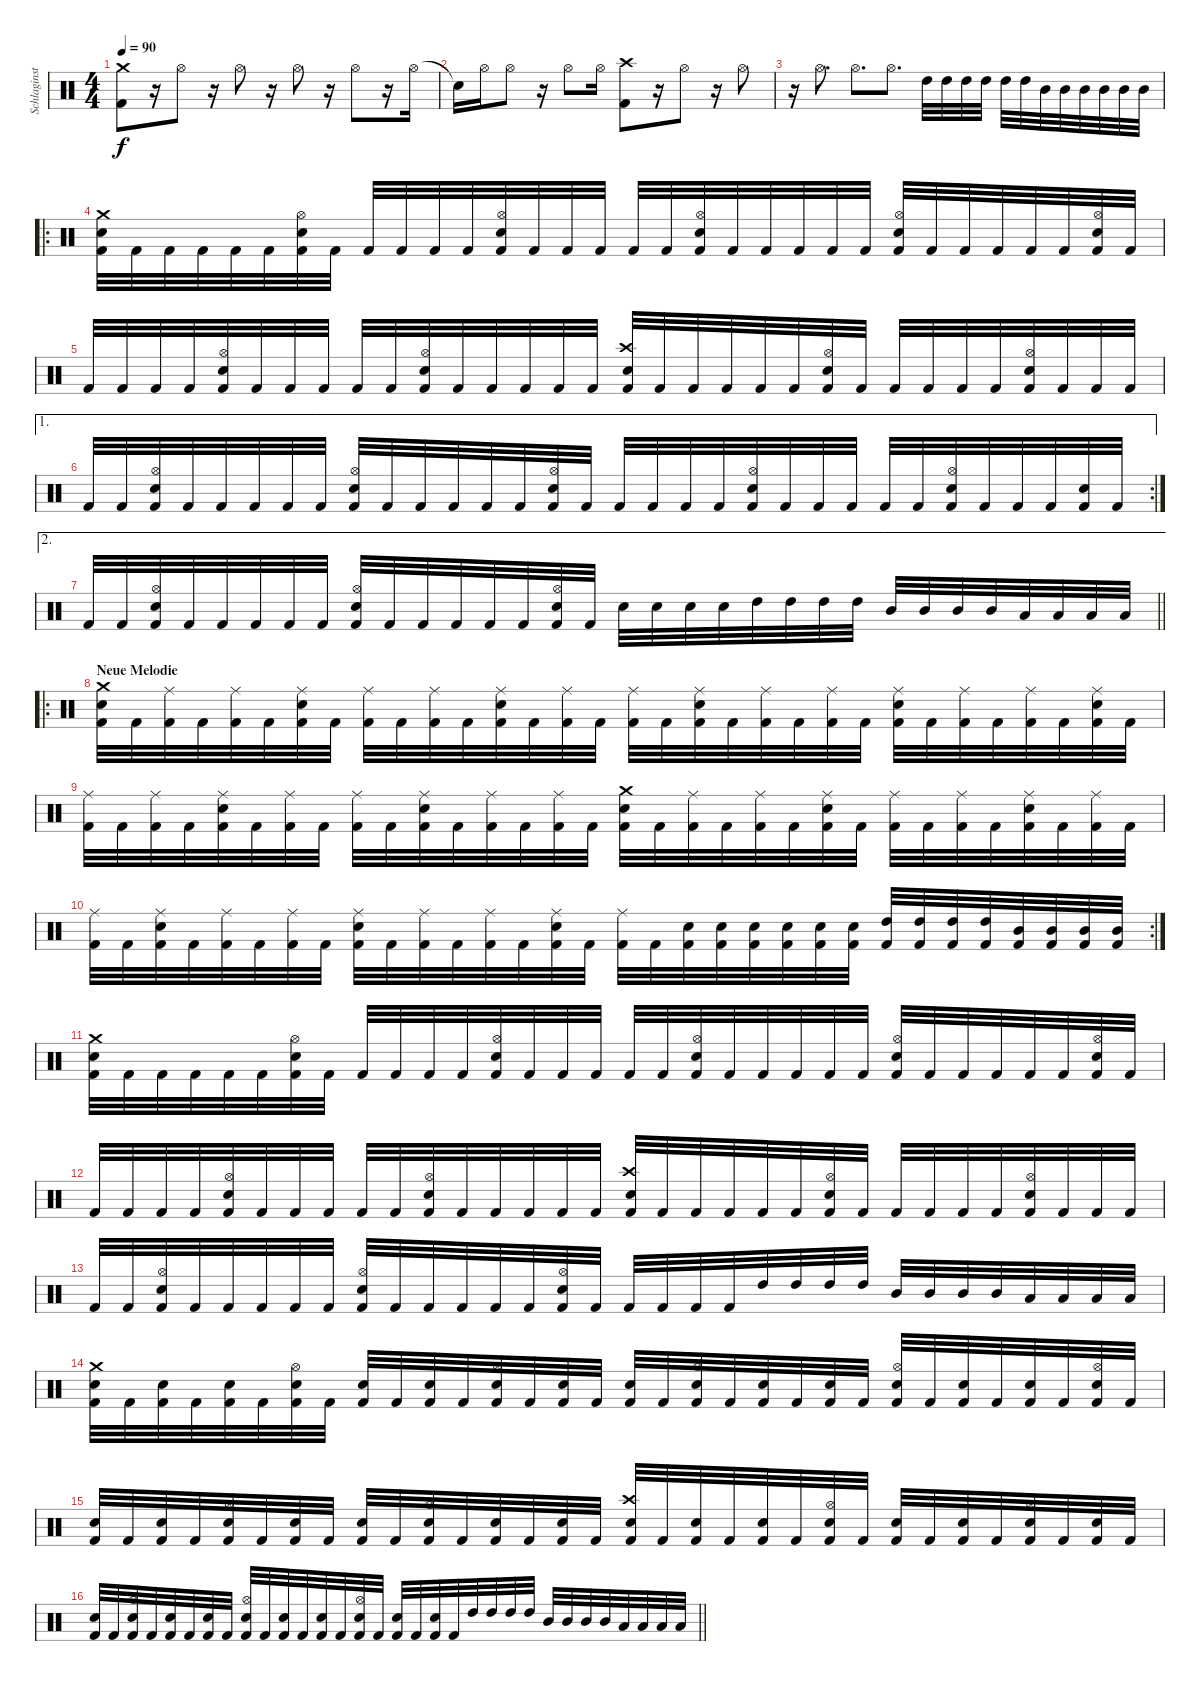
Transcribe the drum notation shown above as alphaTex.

\track ("Schlaginstrumente - Auswahl" "Schlaginst") {instrument percussion}
\staff {score}
\articulation defaults
\ts (4 4)
\tempo 90
\clef neutral
\ks c
("Crash medium (hit)" "Kick (hit) 2").8{dy f} r.16 "Hi-Hat (open)".8 r.16 "Hi-Hat (open)".8 r.16 "Hi-Hat (open)".8 r.16 "Hi-Hat (open)".8 r.16 "Hi-Hat (open)".16 |
"Snare (hit)"{t}.16 "Hi-Hat (open)".16 "Hi-Hat (open)".8 r.16 "Hi-Hat (open)".8 "Hi-Hat (open)".16 ("Crash high (hit)" "Kick (hit) 2").8 r.16 "Hi-Hat (open)".8 r.16 "Hi-Hat (open)".8 |
r.16 "Hi-Hat (open)".8{d} "Hi-Hat (open)".8{d} "Hi-Hat (open)".8{d} "High Tom (hit)".32 "High Tom (hit)".32 "High Tom (hit)".32 "High Tom (hit)".32 "High Tom (hit)".32 "High Tom (hit)".32 "Mid Tom (hit)".32 "Mid Tom (hit)".32 "Mid Tom (hit)".32 "Mid Tom (hit)".32 "Mid Tom (hit)".32 "Mid Tom (hit)".32 |
\ro
("Crash medium (hit)" "Electric Snare (hit)" "Kick (hit) 2").32 "Kick (hit) 2".32 "Kick (hit) 2".32 "Kick (hit) 2".32 "Kick (hit) 2".32 "Kick (hit) 2".32 ("Hi-Hat (open)" "Electric Snare (hit)" "Kick (hit) 2").32 "Kick (hit) 2".32 "Kick (hit) 2".32 "Kick (hit) 2".32 "Kick (hit) 2".32 "Kick (hit) 2".32 ("Hi-Hat (open)" "Electric Snare (hit)" "Kick (hit) 2").32 "Kick (hit) 2".32 "Kick (hit) 2".32 "Kick (hit) 2".32 "Kick (hit) 2".32 "Kick (hit) 2".32 ("Hi-Hat (open)" "Electric Snare (hit)" "Kick (hit) 2").32 "Kick (hit) 2".32 "Kick (hit) 2".32 "Kick (hit) 2".32 "Kick (hit) 2".32 "Kick (hit) 2".32 ("Hi-Hat (open)" "Electric Snare (hit)" "Kick (hit) 2").32 "Kick (hit) 2".32 "Kick (hit) 2".32 "Kick (hit) 2".32 "Kick (hit) 2".32 "Kick (hit) 2".32 ("Hi-Hat (open)" "Electric Snare (hit)" "Kick (hit) 2").32 "Kick (hit) 2".32 |
"Kick (hit) 2".32 "Kick (hit) 2".32 "Kick (hit) 2".32 "Kick (hit) 2".32 ("Hi-Hat (open)" "Electric Snare (hit)" "Kick (hit) 2").32 "Kick (hit) 2".32 "Kick (hit) 2".32 "Kick (hit) 2".32 "Kick (hit) 2".32 "Kick (hit) 2".32 ("Hi-Hat (open)" "Electric Snare (hit)" "Kick (hit) 2").32 "Kick (hit) 2".32 "Kick (hit) 2".32 "Kick (hit) 2".32 "Kick (hit) 2".32 "Kick (hit) 2".32 ("Crash high (hit)" "Electric Snare (hit)" "Kick (hit) 2").32 "Kick (hit) 2".32 "Kick (hit) 2".32 "Kick (hit) 2".32 "Kick (hit) 2".32 "Kick (hit) 2".32 ("Hi-Hat (open)" "Electric Snare (hit)" "Kick (hit) 2").32 "Kick (hit) 2".32 "Kick (hit) 2".32 "Kick (hit) 2".32 "Kick (hit) 2".32 "Kick (hit) 2".32 ("Hi-Hat (open)" "Electric Snare (hit)" "Kick (hit) 2").32 "Kick (hit) 2".32 "Kick (hit) 2".32 "Kick (hit) 2".32 |
\ae 1
\rc 2 "Kick (hit) 2".32 "Kick (hit) 2".32
("Hi-Hat (open)" "Electric Snare (hit)" "Kick (hit) 2").32 "Kick (hit) 2".32 "Kick (hit) 2".32 "Kick (hit) 2".32 "Kick (hit) 2".32 "Kick (hit) 2".32 ("Hi-Hat (open)" "Electric Snare (hit)" "Kick (hit) 2").32 "Kick (hit) 2".32 "Kick (hit) 2".32 "Kick (hit) 2".32 "Kick (hit) 2".32 "Kick (hit) 2".32 ("Hi-Hat (open)" "Electric Snare (hit)" "Kick (hit) 2").32 "Kick (hit) 2".32 "Kick (hit) 2".32 "Kick (hit) 2".32 "Kick (hit) 2".32 "Kick (hit) 2".32 ("Hi-Hat (open)" "Electric Snare (hit)" "Kick (hit) 2").32 "Kick (hit) 2".32 "Kick (hit) 2".32 "Kick (hit) 2".32 "Kick (hit) 2".32 "Kick (hit) 2".32 ("Hi-Hat (open)" "Electric Snare (hit)" "Kick (hit) 2").32 "Kick (hit) 2".32 "Kick (hit) 2".32 "Kick (hit) 2".32 ("Electric Snare (hit)" "Kick (hit) 2").32 "Kick (hit) 2".32 |
\ae 2
\barLineRight lightlight "Kick (hit) 2".32 "Kick (hit) 2".32
("Hi-Hat (open)" "Electric Snare (hit)" "Kick (hit) 2").32 "Kick (hit) 2".32 "Kick (hit) 2".32 "Kick (hit) 2".32 "Kick (hit) 2".32 "Kick (hit) 2".32 ("Hi-Hat (open)" "Electric Snare (hit)" "Kick (hit) 2").32 "Kick (hit) 2".32 "Kick (hit) 2".32 "Kick (hit) 2".32 "Kick (hit) 2".32 "Kick (hit) 2".32 ("Hi-Hat (open)" "Electric Snare (hit)" "Kick (hit) 2").32 "Kick (hit) 2".32 "Electric Snare (hit)".32 "Electric Snare (hit)".32 "Electric Snare (hit)".32 "Electric Snare (hit)".32 "High Tom (hit)".32 "High Tom (hit)".32 "High Tom (hit)".32 "High Tom (hit)".32 "Mid Tom (hit)".32 "Mid Tom (hit)".32 "Mid Tom (hit)".32 "Mid Tom (hit)".32 "Low Tom (hit)".32 "Low Tom (hit)".32 "Low Tom (hit)".32 "Low Tom (hit)".32 |
\ro
\section ("" "Neue Melodie")
("Crash medium (hit)" "Electric Snare (hit)" "Kick (hit) 2").32 "Kick (hit) 2".32 ("Ride (middle)" "Kick (hit) 2").32 "Kick (hit) 2".32 ("Ride (middle)" "Kick (hit) 2").32 "Kick (hit) 2".32 ("Ride (middle)" "Electric Snare (hit)" "Kick (hit) 2").32 "Kick (hit) 2".32 ("Ride (middle)" "Kick (hit) 2").32 "Kick (hit) 2".32 ("Ride (middle)" "Kick (hit) 2").32 "Kick (hit) 2".32 ("Ride (middle)" "Electric Snare (hit)" "Kick (hit) 2").32 "Kick (hit) 2".32 ("Ride (middle)" "Kick (hit) 2").32 "Kick (hit) 2".32 ("Ride (middle)" "Kick (hit) 2").32 "Kick (hit) 2".32 ("Ride (middle)" "Electric Snare (hit)" "Kick (hit) 2").32 "Kick (hit) 2".32 ("Ride (middle)" "Kick (hit) 2").32 "Kick (hit) 2".32 ("Ride (middle)" "Kick (hit) 2").32 "Kick (hit) 2".32 ("Ride (middle)" "Electric Snare (hit)" "Kick (hit) 2").32 "Kick (hit) 2".32 ("Ride (middle)" "Kick (hit) 2").32 "Kick (hit) 2".32 ("Ride (middle)" "Kick (hit) 2").32 "Kick (hit) 2".32 ("Ride (middle)" "Electric Snare (hit)" "Kick (hit) 2").32 "Kick (hit) 2".32 |
("Ride (middle)" "Kick (hit) 2").32 "Kick (hit) 2".32 ("Ride (middle)" "Kick (hit) 2").32 "Kick (hit) 2".32 ("Ride (middle)" "Electric Snare (hit)" "Kick (hit) 2").32 "Kick (hit) 2".32 ("Ride (middle)" "Kick (hit) 2").32 "Kick (hit) 2".32 ("Ride (middle)" "Kick (hit) 2").32 "Kick (hit) 2".32 ("Ride (middle)" "Electric Snare (hit)" "Kick (hit) 2").32 "Kick (hit) 2".32 ("Ride (middle)" "Kick (hit) 2").32 "Kick (hit) 2".32 ("Ride (middle)" "Kick (hit) 2").32 "Kick (hit) 2".32 ("Crash medium (hit)" "Electric Snare (hit)" "Kick (hit) 2").32 "Kick (hit) 2".32 ("Ride (middle)" "Kick (hit) 2").32 "Kick (hit) 2".32 ("Ride (middle)" "Kick (hit) 2").32 "Kick (hit) 2".32 ("Ride (middle)" "Electric Snare (hit)" "Kick (hit) 2").32 "Kick (hit) 2".32 ("Ride (middle)" "Kick (hit) 2").32 "Kick (hit) 2".32 ("Ride (middle)" "Kick (hit) 2").32 "Kick (hit) 2".32 ("Ride (middle)" "Electric Snare (hit)" "Kick (hit) 2").32 "Kick (hit) 2".32 ("Ride (middle)" "Kick (hit) 2").32 "Kick (hit) 2".32 |
\rc 2
("Ride (middle)" "Kick (hit) 2").32 "Kick (hit) 2".32 ("Ride (middle)" "Electric Snare (hit)" "Kick (hit) 2").32 "Kick (hit) 2".32 ("Ride (middle)" "Kick (hit) 2").32 "Kick (hit) 2".32 ("Ride (middle)" "Kick (hit) 2").32 "Kick (hit) 2".32 ("Ride (middle)" "Electric Snare (hit)" "Kick (hit) 2").32 "Kick (hit) 2".32 ("Ride (middle)" "Kick (hit) 2").32 "Kick (hit) 2".32 ("Ride (middle)" "Kick (hit) 2").32 "Kick (hit) 2".32 ("Ride (middle)" "Electric Snare (hit)" "Kick (hit) 2").32 "Kick (hit) 2".32 ("Ride (middle)" "Kick (hit) 2").32 "Kick (hit) 2".32 ("Electric Snare (hit)" "Kick (hit) 2").32 ("Electric Snare (hit)" "Kick (hit) 2").32 ("Electric Snare (hit)" "Kick (hit) 2").32 ("Electric Snare (hit)" "Kick (hit) 2").32 ("Electric Snare (hit)" "Kick (hit) 2").32 ("Electric Snare (hit)" "Kick (hit) 2").32 ("High Tom (hit)" "Kick (hit) 2").32 ("High Tom (hit)" "Kick (hit) 2").32 ("High Tom (hit)" "Kick (hit) 2").32 ("High Tom (hit)" "Kick (hit) 2").32 ("Mid Tom (hit)" "Kick (hit) 2").32 ("Mid Tom (hit)" "Kick (hit) 2").32 ("Mid Tom (hit)" "Kick (hit) 2").32 ("Mid Tom (hit)" "Kick (hit) 2").32 |
("Crash medium (hit)" "Electric Snare (hit)" "Kick (hit) 2").32 "Kick (hit) 2".32 "Kick (hit) 2".32 "Kick (hit) 2".32 "Kick (hit) 2".32 "Kick (hit) 2".32 ("Hi-Hat (open)" "Electric Snare (hit)" "Kick (hit) 2").32 "Kick (hit) 2".32 "Kick (hit) 2".32 "Kick (hit) 2".32 "Kick (hit) 2".32 "Kick (hit) 2".32 ("Hi-Hat (open)" "Electric Snare (hit)" "Kick (hit) 2").32 "Kick (hit) 2".32 "Kick (hit) 2".32 "Kick (hit) 2".32 "Kick (hit) 2".32 "Kick (hit) 2".32 ("Hi-Hat (open)" "Electric Snare (hit)" "Kick (hit) 2").32 "Kick (hit) 2".32 "Kick (hit) 2".32 "Kick (hit) 2".32 "Kick (hit) 2".32 "Kick (hit) 2".32 ("Hi-Hat (open)" "Electric Snare (hit)" "Kick (hit) 2").32 "Kick (hit) 2".32 "Kick (hit) 2".32 "Kick (hit) 2".32 "Kick (hit) 2".32 "Kick (hit) 2".32 ("Hi-Hat (open)" "Electric Snare (hit)" "Kick (hit) 2").32 "Kick (hit) 2".32 |
"Kick (hit) 2".32 "Kick (hit) 2".32 "Kick (hit) 2".32 "Kick (hit) 2".32 ("Hi-Hat (open)" "Electric Snare (hit)" "Kick (hit) 2").32 "Kick (hit) 2".32 "Kick (hit) 2".32 "Kick (hit) 2".32 "Kick (hit) 2".32 "Kick (hit) 2".32 ("Hi-Hat (open)" "Electric Snare (hit)" "Kick (hit) 2").32 "Kick (hit) 2".32 "Kick (hit) 2".32 "Kick (hit) 2".32 "Kick (hit) 2".32 "Kick (hit) 2".32 ("Crash high (hit)" "Electric Snare (hit)" "Kick (hit) 2").32 "Kick (hit) 2".32 "Kick (hit) 2".32 "Kick (hit) 2".32 "Kick (hit) 2".32 "Kick (hit) 2".32 ("Hi-Hat (open)" "Electric Snare (hit)" "Kick (hit) 2").32 "Kick (hit) 2".32 "Kick (hit) 2".32 "Kick (hit) 2".32 "Kick (hit) 2".32 "Kick (hit) 2".32 ("Hi-Hat (open)" "Electric Snare (hit)" "Kick (hit) 2").32 "Kick (hit) 2".32 "Kick (hit) 2".32 "Kick (hit) 2".32 |
"Kick (hit) 2".32 "Kick (hit) 2".32 ("Hi-Hat (open)" "Electric Snare (hit)" "Kick (hit) 2").32 "Kick (hit) 2".32 "Kick (hit) 2".32 "Kick (hit) 2".32 "Kick (hit) 2".32 "Kick (hit) 2".32 ("Hi-Hat (open)" "Electric Snare (hit)" "Kick (hit) 2").32 "Kick (hit) 2".32 "Kick (hit) 2".32 "Kick (hit) 2".32 "Kick (hit) 2".32 "Kick (hit) 2".32 ("Hi-Hat (open)" "Electric Snare (hit)" "Kick (hit) 2").32 "Kick (hit) 2".32 "Kick (hit) 2".32 "Kick (hit) 2".32 "Kick (hit) 2".32 "Kick (hit) 2".32 "High Tom (hit)".32 "High Tom (hit)".32 "High Tom (hit)".32 "High Tom (hit)".32 "Mid Tom (hit)".32 "Mid Tom (hit)".32 "Mid Tom (hit)".32 "Mid Tom (hit)".32 "Low Tom (hit)".32 "Low Tom (hit)".32 "Low Tom (hit)".32 "Low Tom (hit)".32 |
("Crash medium (hit)" "Electric Snare (hit)" "Kick (hit) 2").32 "Kick (hit) 2".32 ("Electric Snare (hit)" "Kick (hit) 2").32 "Kick (hit) 2".32 ("Electric Snare (hit)" "Kick (hit) 2").32 "Kick (hit) 2".32 ("Hi-Hat (open)" "Electric Snare (hit)" "Kick (hit) 2").32 "Kick (hit) 2".32 ("Electric Snare (hit)" "Kick (hit) 2").32 "Kick (hit) 2".32 ("Electric Snare (hit)" "Kick (hit) 2").32 "Kick (hit) 2".32 ("Hi-Hat (open)" "Electric Snare (hit)" "Kick (hit) 2").32 "Kick (hit) 2".32 ("Electric Snare (hit)" "Kick (hit) 2").32 "Kick (hit) 2".32 ("Electric Snare (hit)" "Kick (hit) 2").32 "Kick (hit) 2".32 ("Hi-Hat (open)" "Electric Snare (hit)" "Kick (hit) 2").32 "Kick (hit) 2".32 ("Electric Snare (hit)" "Kick (hit) 2").32 "Kick (hit) 2".32 ("Electric Snare (hit)" "Kick (hit) 2").32 "Kick (hit) 2".32 ("Hi-Hat (open)" "Electric Snare (hit)" "Kick (hit) 2").32 "Kick (hit) 2".32 ("Electric Snare (hit)" "Kick (hit) 2").32 "Kick (hit) 2".32 ("Electric Snare (hit)" "Kick (hit) 2").32 "Kick (hit) 2".32 ("Hi-Hat (open)" "Electric Snare (hit)" "Kick (hit) 2").32 "Kick (hit) 2".32 |
("Electric Snare (hit)" "Kick (hit) 2").32 "Kick (hit) 2".32 ("Electric Snare (hit)" "Kick (hit) 2").32 "Kick (hit) 2".32 ("Hi-Hat (open)" "Electric Snare (hit)" "Kick (hit) 2").32 "Kick (hit) 2".32 ("Electric Snare (hit)" "Kick (hit) 2").32 "Kick (hit) 2".32 ("Electric Snare (hit)" "Kick (hit) 2").32 "Kick (hit) 2".32 ("Hi-Hat (open)" "Electric Snare (hit)" "Kick (hit) 2").32 "Kick (hit) 2".32 ("Electric Snare (hit)" "Kick (hit) 2").32 "Kick (hit) 2".32 ("Electric Snare (hit)" "Kick (hit) 2").32 "Kick (hit) 2".32 ("Crash high (hit)" "Electric Snare (hit)" "Kick (hit) 2").32 "Kick (hit) 2".32 ("Electric Snare (hit)" "Kick (hit) 2").32 "Kick (hit) 2".32 ("Electric Snare (hit)" "Kick (hit) 2").32 "Kick (hit) 2".32 ("Hi-Hat (open)" "Electric Snare (hit)" "Kick (hit) 2").32 "Kick (hit) 2".32 ("Electric Snare (hit)" "Kick (hit) 2").32 "Kick (hit) 2".32 ("Electric Snare (hit)" "Kick (hit) 2").32 "Kick (hit) 2".32 ("Hi-Hat (open)" "Electric Snare (hit)" "Kick (hit) 2").32 "Kick (hit) 2".32 ("Electric Snare (hit)" "Kick (hit) 2").32 "Kick (hit) 2".32 |
\barLineRight lightlight
("Electric Snare (hit)" "Kick (hit) 2").32 "Kick (hit) 2".32 ("Hi-Hat (open)" "Electric Snare (hit)" "Kick (hit) 2").32 "Kick (hit) 2".32 ("Electric Snare (hit)" "Kick (hit) 2").32 "Kick (hit) 2".32 ("Electric Snare (hit)" "Kick (hit) 2").32 "Kick (hit) 2".32 ("Hi-Hat (open)" "Electric Snare (hit)" "Kick (hit) 2").32 "Kick (hit) 2".32 ("Electric Snare (hit)" "Kick (hit) 2").32 "Kick (hit) 2".32 ("Electric Snare (hit)" "Kick (hit) 2").32 "Kick (hit) 2".32 ("Hi-Hat (open)" "Electric Snare (hit)" "Kick (hit) 2").32 "Kick (hit) 2".32 ("Electric Snare (hit)" "Kick (hit) 2").32 "Kick (hit) 2".32 ("Electric Snare (hit)" "Kick (hit) 2").32 "Kick (hit) 2".32 "High Tom (hit)".32 "High Tom (hit)".32 "High Tom (hit)".32 "High Tom (hit)".32 "Mid Tom (hit)".32 "Mid Tom (hit)".32 "Mid Tom (hit)".32 "Mid Tom (hit)".32 "Low Tom (hit)".32 "Low Tom (hit)".32 "Low Tom (hit)".32 "Low Tom (hit)".32
